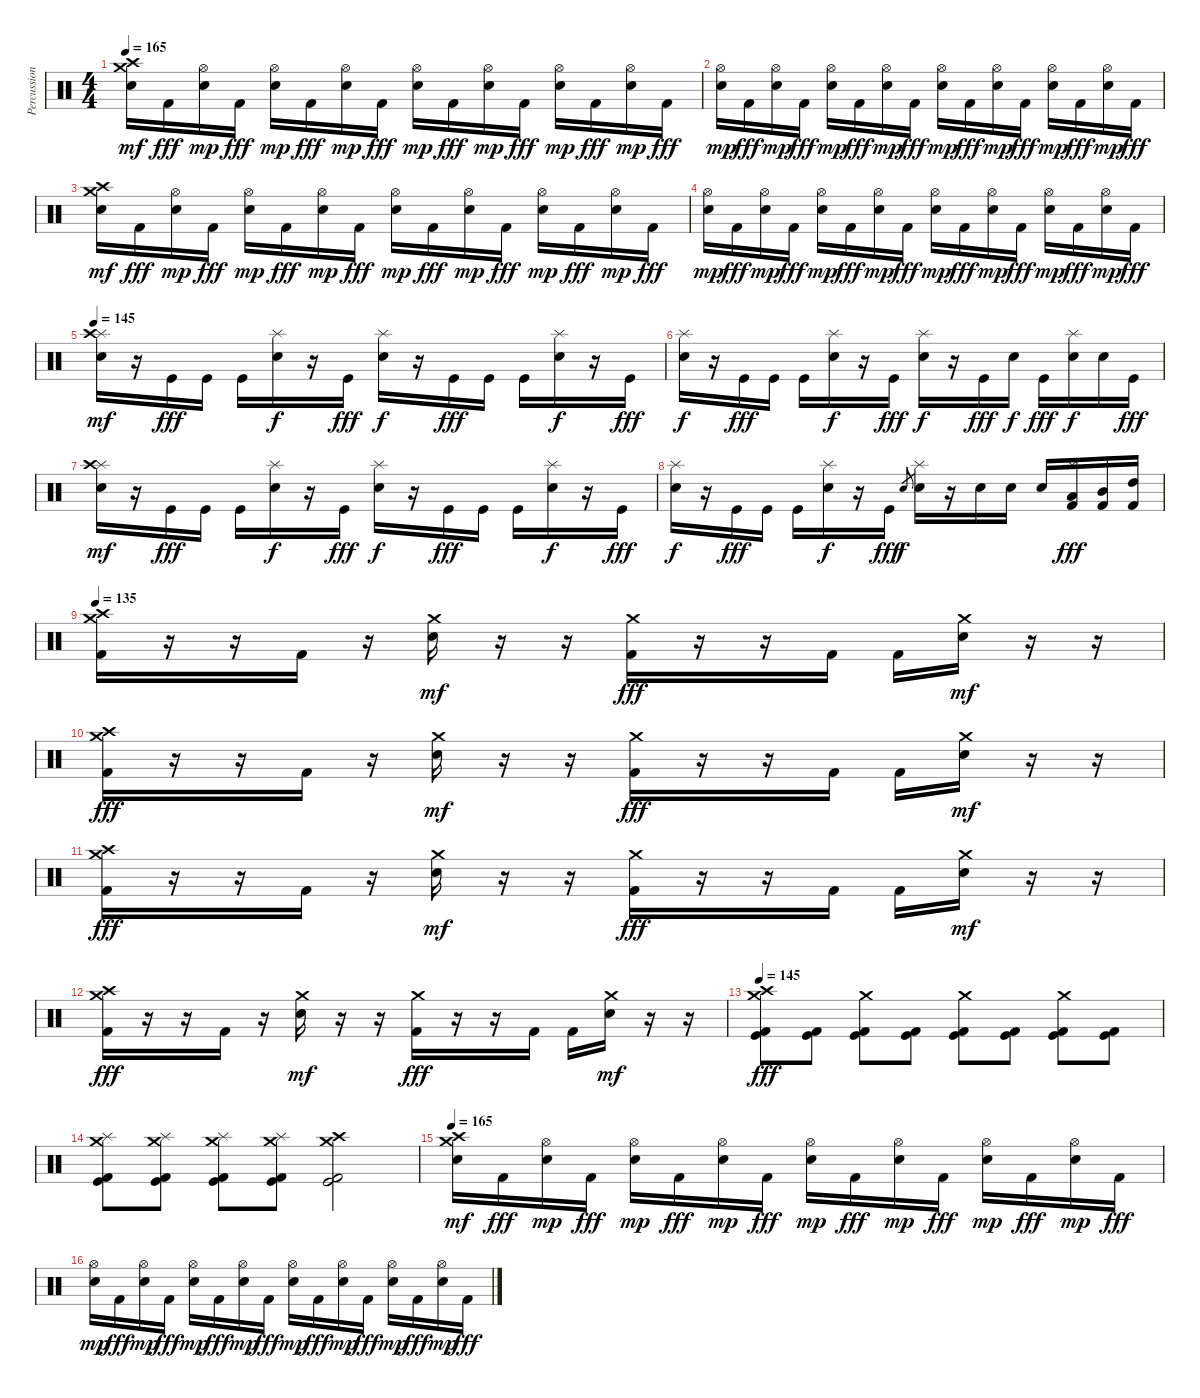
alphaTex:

\track ("Percussions" "Percussion") {instrument percussion}
\staff {score}
\articulation defaults
\ts (4 4)
\tempo 165
\clef neutral
\ks c
("Crash medium (hit)" "Crash high (hit)" "Electric Snare (hit)").16{dy mf} "Kick (hit) 2".16{dy fff} ("Hi-Hat (open)" "Electric Snare (hit)").16{dy mp} "Kick (hit) 2".16{dy fff} ("Hi-Hat (open)" "Electric Snare (hit)").16{dy mp} "Kick (hit) 2".16{dy fff} ("Hi-Hat (open)" "Electric Snare (hit)").16{dy mp} "Kick (hit) 2".16{dy fff} ("Hi-Hat (open)" "Electric Snare (hit)").16{dy mp} "Kick (hit) 2".16{dy fff} ("Hi-Hat (open)" "Electric Snare (hit)").16{dy mp} "Kick (hit) 2".16{dy fff} ("Hi-Hat (open)" "Electric Snare (hit)").16{dy mp} "Kick (hit) 2".16{dy fff} ("Hi-Hat (open)" "Electric Snare (hit)").16{dy mp} "Kick (hit) 2".16{dy fff} |
("Hi-Hat (open)" "Electric Snare (hit)").16{dy mp} "Kick (hit) 2".16{dy fff} ("Hi-Hat (open)" "Electric Snare (hit)").16{dy mp} "Kick (hit) 2".16{dy fff} ("Hi-Hat (open)" "Electric Snare (hit)").16{dy mp} "Kick (hit) 2".16{dy fff} ("Hi-Hat (open)" "Electric Snare (hit)").16{dy mp} "Kick (hit) 2".16{dy fff} ("Hi-Hat (open)" "Electric Snare (hit)").16{dy mp} "Kick (hit) 2".16{dy fff} ("Hi-Hat (open)" "Electric Snare (hit)").16{dy mp} "Kick (hit) 2".16{dy fff} ("Hi-Hat (open)" "Electric Snare (hit)").16{dy mp} "Kick (hit) 2".16{dy fff} ("Hi-Hat (open)" "Electric Snare (hit)").16{dy mp} "Kick (hit) 2".16{dy fff} |
("Crash medium (hit)" "Crash high (hit)" "Electric Snare (hit)").16{dy mf} "Kick (hit) 2".16{dy fff} ("Hi-Hat (open)" "Electric Snare (hit)").16{dy mp} "Kick (hit) 2".16{dy fff} ("Hi-Hat (open)" "Electric Snare (hit)").16{dy mp} "Kick (hit) 2".16{dy fff} ("Hi-Hat (open)" "Electric Snare (hit)").16{dy mp} "Kick (hit) 2".16{dy fff} ("Hi-Hat (open)" "Electric Snare (hit)").16{dy mp} "Kick (hit) 2".16{dy fff} ("Hi-Hat (open)" "Electric Snare (hit)").16{dy mp} "Kick (hit) 2".16{dy fff} ("Hi-Hat (open)" "Electric Snare (hit)").16{dy mp} "Kick (hit) 2".16{dy fff} ("Hi-Hat (open)" "Electric Snare (hit)").16{dy mp} "Kick (hit) 2".16{dy fff} |
("Hi-Hat (open)" "Electric Snare (hit)").16{dy mp} "Kick (hit) 2".16{dy fff} ("Hi-Hat (open)" "Electric Snare (hit)").16{dy mp} "Kick (hit) 2".16{dy fff} ("Hi-Hat (open)" "Electric Snare (hit)").16{dy mp} "Kick (hit) 2".16{dy fff} ("Hi-Hat (open)" "Electric Snare (hit)").16{dy mp} "Kick (hit) 2".16{dy fff} ("Hi-Hat (open)" "Electric Snare (hit)").16{dy mp} "Kick (hit) 2".16{dy fff} ("Hi-Hat (open)" "Electric Snare (hit)").16{dy mp} "Kick (hit) 2".16{dy fff} ("Hi-Hat (open)" "Electric Snare (hit)").16{dy mp} "Kick (hit) 2".16{dy fff} ("Hi-Hat (open)" "Electric Snare (hit)").16{dy mp} "Kick (hit) 2".16{dy fff} |
\tempo 145
("Splash (hit)" "Crash high (hit)" "Electric Snare (hit)").16{dy mf} r.16 "Kick (hit)".16{dy fff} "Kick (hit)".16 "Kick (hit)".16 ("Splash (hit)" "Electric Snare (hit)").16{dy f} r.16 "Kick (hit)".16{dy fff} ("Splash (hit)" "Electric Snare (hit)").16{dy f} r.16 "Kick (hit)".16{dy fff} "Kick (hit)".16 "Kick (hit)".16 ("Splash (hit)" "Electric Snare (hit)").16{dy f} r.16 "Kick (hit)".16{dy fff} |
("Splash (hit)" "Electric Snare (hit)").16{dy f} r.16 "Kick (hit)".16{dy fff} "Kick (hit)".16 "Kick (hit)".16 ("Splash (hit)" "Electric Snare (hit)").16{dy f} r.16 "Kick (hit)".16{dy fff} ("Splash (hit)" "Electric Snare (hit)").16{dy f} r.16 "Kick (hit)".16{dy fff} "Electric Snare (hit)".16{dy f} "Kick (hit)".16{dy fff} ("Splash (hit)" "Electric Snare (hit)").16{dy f} "Electric Snare (hit)".16 "Kick (hit)".16{dy fff} |
("Splash (hit)" "Crash high (hit)" "Electric Snare (hit)").16{dy mf} r.16 "Kick (hit)".16{dy fff} "Kick (hit)".16 "Kick (hit)".16 ("Splash (hit)" "Electric Snare (hit)").16{dy f} r.16 "Kick (hit)".16{dy fff} ("Splash (hit)" "Electric Snare (hit)").16{dy f} r.16 "Kick (hit)".16{dy fff} "Kick (hit)".16 "Kick (hit)".16 ("Splash (hit)" "Electric Snare (hit)").16{dy f} r.16 "Kick (hit)".16{dy fff} |
("Splash (hit)" "Electric Snare (hit)").16{dy f} r.16 "Kick (hit)".16{dy fff} "Kick (hit)".16 "Kick (hit)".16 ("Splash (hit)" "Electric Snare (hit)").16{dy f} r.16 "Kick (hit)".16{dy fff} "Electric Snare (hit)".8{gr dy f} ("Splash (hit)" "Electric Snare (hit)").16 r.16 "Electric Snare (hit)".16 "Electric Snare (hit)".16 "Electric Snare (hit)".16 ("Splash (hit)" "Low Tom (hit)" "Kick (hit) 2").16{dy fff} ("Mid Tom (hit)" "Kick (hit) 2").16 ("High Tom (hit)" "Kick (hit) 2").16 |
\tempo 135
("Crash medium (hit)" "Crash high (hit)" "Kick (hit) 2").16 r.16 r.16 "Kick (hit) 2".16 r.16 ("Crash medium (hit)" "Electric Snare (hit)").16{dy mf} r.16 r.16 ("Crash medium (hit)" "Kick (hit) 2").16{dy fff} r.16 r.16 "Kick (hit) 2".16 "Kick (hit) 2".16 ("Crash medium (hit)" "Electric Snare (hit)").16{dy mf} r.16 r.16 |
("Crash medium (hit)" "Crash high (hit)" "Kick (hit) 2").16{dy fff} r.16 r.16 "Kick (hit) 2".16 r.16 ("Crash medium (hit)" "Electric Snare (hit)").16{dy mf} r.16 r.16 ("Crash medium (hit)" "Kick (hit) 2").16{dy fff} r.16 r.16 "Kick (hit) 2".16 "Kick (hit) 2".16 ("Crash medium (hit)" "Electric Snare (hit)").16{dy mf} r.16 r.16 |
("Crash medium (hit)" "Crash high (hit)" "Kick (hit) 2").16{dy fff} r.16 r.16 "Kick (hit) 2".16 r.16 ("Crash medium (hit)" "Electric Snare (hit)").16{dy mf} r.16 r.16 ("Crash medium (hit)" "Kick (hit) 2").16{dy fff} r.16 r.16 "Kick (hit) 2".16 "Kick (hit) 2".16 ("Crash medium (hit)" "Electric Snare (hit)").16{dy mf} r.16 r.16 |
("Crash medium (hit)" "Crash high (hit)" "Kick (hit) 2").16{dy fff} r.16 r.16 "Kick (hit) 2".16 r.16 ("Crash medium (hit)" "Electric Snare (hit)").16{dy mf} r.16 r.16 ("Crash medium (hit)" "Kick (hit) 2").16{dy fff} r.16 r.16 "Kick (hit) 2".16 "Kick (hit) 2".16 ("Crash medium (hit)" "Electric Snare (hit)").16{dy mf} r.16 r.16 |
\tempo 145
("Crash high (hit)" "Crash medium (hit)" "Kick (hit)" "Kick (hit) 2").8{dy fff} ("Kick (hit)" "Kick (hit) 2").8 ("Crash medium (hit)" "Kick (hit)" "Kick (hit) 2").8 ("Kick (hit)" "Kick (hit) 2").8 ("Crash medium (hit)" "Kick (hit)" "Kick (hit) 2").8 ("Kick (hit)" "Kick (hit) 2").8 ("Crash medium (hit)" "Kick (hit)" "Kick (hit) 2").8 ("Kick (hit)" "Kick (hit) 2").8 |
("Splash (hit)" "Crash medium (hit)" "Kick (hit)" "Kick (hit) 2").8 ("Splash (hit)" "Crash medium (hit)" "Kick (hit)" "Kick (hit) 2").8 ("Splash (hit)" "Crash medium (hit)" "Kick (hit)" "Kick (hit) 2").8 ("Splash (hit)" "Crash medium (hit)" "Kick (hit)" "Kick (hit) 2").8 ("Crash medium (hit)" "Crash high (hit)" "Kick (hit)" "Kick (hit) 2").2 |
\tempo 165
("Crash medium (hit)" "Crash high (hit)" "Electric Snare (hit)").16{dy mf} "Kick (hit) 2".16{dy fff} ("Hi-Hat (open)" "Electric Snare (hit)").16{dy mp} "Kick (hit) 2".16{dy fff} ("Hi-Hat (open)" "Electric Snare (hit)").16{dy mp} "Kick (hit) 2".16{dy fff} ("Hi-Hat (open)" "Electric Snare (hit)").16{dy mp} "Kick (hit) 2".16{dy fff} ("Hi-Hat (open)" "Electric Snare (hit)").16{dy mp} "Kick (hit) 2".16{dy fff} ("Hi-Hat (open)" "Electric Snare (hit)").16{dy mp} "Kick (hit) 2".16{dy fff} ("Hi-Hat (open)" "Electric Snare (hit)").16{dy mp} "Kick (hit) 2".16{dy fff} ("Hi-Hat (open)" "Electric Snare (hit)").16{dy mp} "Kick (hit) 2".16{dy fff} |
("Hi-Hat (open)" "Electric Snare (hit)").16{dy mp} "Kick (hit) 2".16{dy fff} ("Hi-Hat (open)" "Electric Snare (hit)").16{dy mp} "Kick (hit) 2".16{dy fff} ("Hi-Hat (open)" "Electric Snare (hit)").16{dy mp} "Kick (hit) 2".16{dy fff} ("Hi-Hat (open)" "Electric Snare (hit)").16{dy mp} "Kick (hit) 2".16{dy fff} ("Hi-Hat (open)" "Electric Snare (hit)").16{dy mp} "Kick (hit) 2".16{dy fff} ("Hi-Hat (open)" "Electric Snare (hit)").16{dy mp} "Kick (hit) 2".16{dy fff} ("Hi-Hat (open)" "Electric Snare (hit)").16{dy mp} "Kick (hit) 2".16{dy fff} ("Hi-Hat (open)" "Electric Snare (hit)").16{dy mp} "Kick (hit) 2".16{dy fff}
